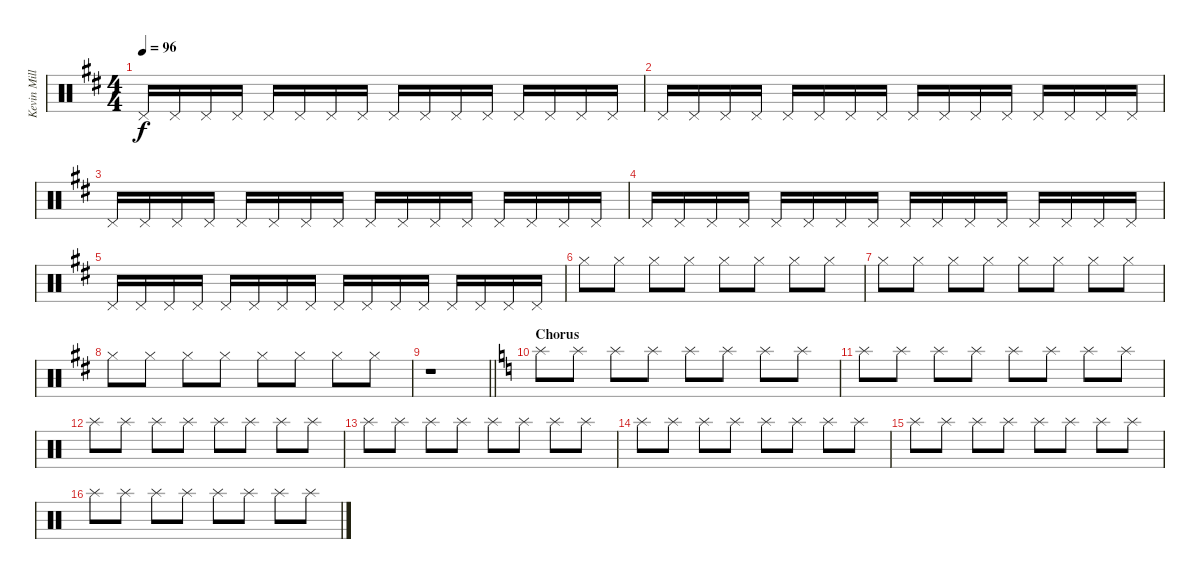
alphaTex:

\track ("Kevin Miller (Drums)" "Kevin Mill") {instrument percussion}
\staff {score}
\articulation defaults
\ts (4 4)
\tempo 96
\clef neutral
\ks d "Pedal Hi-Hat (hit)".16{dy f} "Pedal Hi-Hat (hit)".16 "Pedal Hi-Hat (hit)".16 "Pedal Hi-Hat (hit)".16 "Pedal Hi-Hat (hit)".16 "Pedal Hi-Hat (hit)".16 "Pedal Hi-Hat (hit)".16 "Pedal Hi-Hat (hit)".16 "Pedal Hi-Hat (hit)".16 "Pedal Hi-Hat (hit)".16 "Pedal Hi-Hat (hit)".16 "Pedal Hi-Hat (hit)".16 "Pedal Hi-Hat (hit)".16 "Pedal Hi-Hat (hit)".16 "Pedal Hi-Hat (hit)".16 "Pedal Hi-Hat (hit)".16
|
"Pedal Hi-Hat (hit)".16 "Pedal Hi-Hat (hit)".16 "Pedal Hi-Hat (hit)".16 "Pedal Hi-Hat (hit)".16 "Pedal Hi-Hat (hit)".16 "Pedal Hi-Hat (hit)".16 "Pedal Hi-Hat (hit)".16 "Pedal Hi-Hat (hit)".16 "Pedal Hi-Hat (hit)".16 "Pedal Hi-Hat (hit)".16 "Pedal Hi-Hat (hit)".16 "Pedal Hi-Hat (hit)".16 "Pedal Hi-Hat (hit)".16 "Pedal Hi-Hat (hit)".16 "Pedal Hi-Hat (hit)".16 "Pedal Hi-Hat (hit)".16 |
"Pedal Hi-Hat (hit)".16 "Pedal Hi-Hat (hit)".16 "Pedal Hi-Hat (hit)".16 "Pedal Hi-Hat (hit)".16 "Pedal Hi-Hat (hit)".16 "Pedal Hi-Hat (hit)".16 "Pedal Hi-Hat (hit)".16 "Pedal Hi-Hat (hit)".16 "Pedal Hi-Hat (hit)".16 "Pedal Hi-Hat (hit)".16 "Pedal Hi-Hat (hit)".16 "Pedal Hi-Hat (hit)".16 "Pedal Hi-Hat (hit)".16 "Pedal Hi-Hat (hit)".16 "Pedal Hi-Hat (hit)".16 "Pedal Hi-Hat (hit)".16 |
"Pedal Hi-Hat (hit)".16 "Pedal Hi-Hat (hit)".16 "Pedal Hi-Hat (hit)".16 "Pedal Hi-Hat (hit)".16 "Pedal Hi-Hat (hit)".16 "Pedal Hi-Hat (hit)".16 "Pedal Hi-Hat (hit)".16 "Pedal Hi-Hat (hit)".16 "Pedal Hi-Hat (hit)".16 "Pedal Hi-Hat (hit)".16 "Pedal Hi-Hat (hit)".16 "Pedal Hi-Hat (hit)".16 "Pedal Hi-Hat (hit)".16 "Pedal Hi-Hat (hit)".16 "Pedal Hi-Hat (hit)".16 "Pedal Hi-Hat (hit)".16 |
"Pedal Hi-Hat (hit)".16 "Pedal Hi-Hat (hit)".16 "Pedal Hi-Hat (hit)".16 "Pedal Hi-Hat (hit)".16 "Pedal Hi-Hat (hit)".16 "Pedal Hi-Hat (hit)".16 "Pedal Hi-Hat (hit)".16 "Pedal Hi-Hat (hit)".16 "Pedal Hi-Hat (hit)".16 "Pedal Hi-Hat (hit)".16 "Pedal Hi-Hat (hit)".16 "Pedal Hi-Hat (hit)".16 "Pedal Hi-Hat (hit)".16 "Pedal Hi-Hat (hit)".16 "Pedal Hi-Hat (hit)".16 "Pedal Hi-Hat (hit)".16 |
"Hi-Hat (closed)".8 "Hi-Hat (closed)".8 "Hi-Hat (closed)".8 "Hi-Hat (closed)".8 "Hi-Hat (closed)".8 "Hi-Hat (closed)".8 "Hi-Hat (closed)".8 "Hi-Hat (closed)".8 |
"Hi-Hat (closed)".8 "Hi-Hat (closed)".8 "Hi-Hat (closed)".8 "Hi-Hat (closed)".8 "Hi-Hat (closed)".8 "Hi-Hat (closed)".8 "Hi-Hat (closed)".8 "Hi-Hat (closed)".8 |
"Hi-Hat (closed)".8 "Hi-Hat (closed)".8 "Hi-Hat (closed)".8 "Hi-Hat (closed)".8 "Hi-Hat (closed)".8 "Hi-Hat (closed)".8 "Hi-Hat (closed)".8 "Hi-Hat (closed)".8 |
\barLineRight lightlight
r.1 |
\section ("" "Chorus")
\ks c "Splash (hit)".8 "Splash (hit)".8 "Splash (hit)".8 "Splash (hit)".8 "Splash (hit)".8 "Splash (hit)".8 "Splash (hit)".8 "Splash (hit)".8
|
"Splash (hit)".8 "Splash (hit)".8 "Splash (hit)".8 "Splash (hit)".8 "Splash (hit)".8 "Splash (hit)".8 "Splash (hit)".8 "Splash (hit)".8 |
"Splash (hit)".8 "Splash (hit)".8 "Splash (hit)".8 "Splash (hit)".8 "Splash (hit)".8 "Splash (hit)".8 "Splash (hit)".8 "Splash (hit)".8 |
"Splash (hit)".8 "Splash (hit)".8 "Splash (hit)".8 "Splash (hit)".8 "Splash (hit)".8 "Splash (hit)".8 "Splash (hit)".8 "Splash (hit)".8 |
"Splash (hit)".8 "Splash (hit)".8 "Splash (hit)".8 "Splash (hit)".8 "Splash (hit)".8 "Splash (hit)".8 "Splash (hit)".8 "Splash (hit)".8 |
"Splash (hit)".8 "Splash (hit)".8 "Splash (hit)".8 "Splash (hit)".8 "Splash (hit)".8 "Splash (hit)".8 "Splash (hit)".8 "Splash (hit)".8 |
"Splash (hit)".8 "Splash (hit)".8 "Splash (hit)".8 "Splash (hit)".8 "Splash (hit)".8 "Splash (hit)".8 "Splash (hit)".8 "Splash (hit)".8
